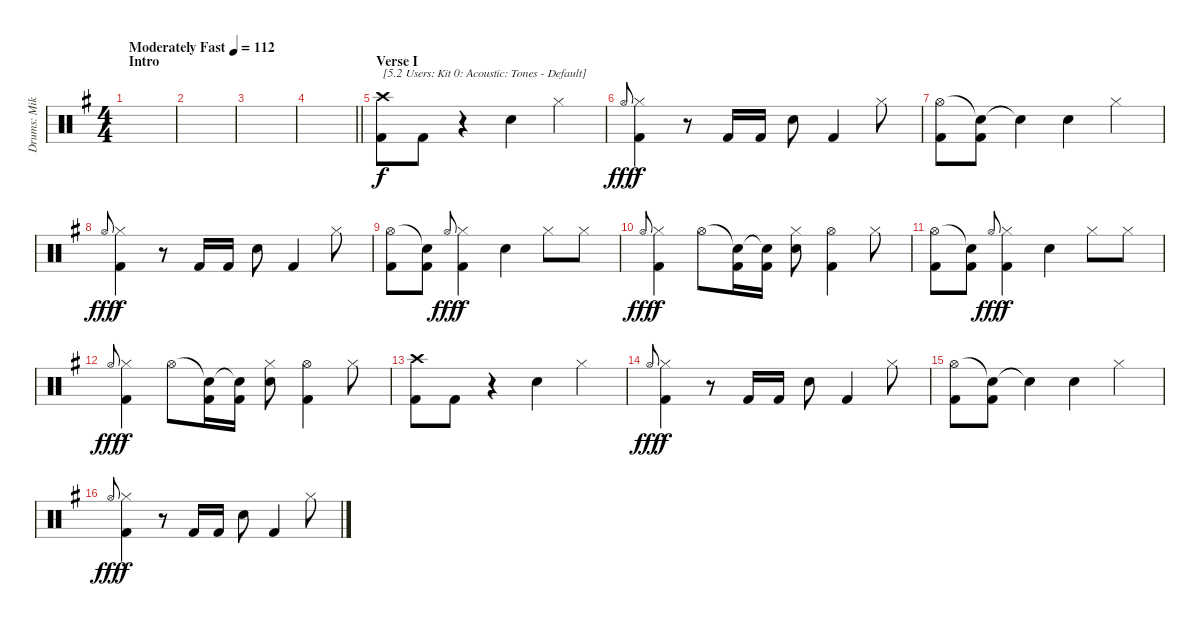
\track ("Drums: Mike" "Drums: Mik") {instrument percussion}
\staff {score}
\articulation defaults
\ts (4 4)
\section ("" "Intro")
\tempo (112 "Moderately Fast")
\clef neutral
\ks g
|
|
|
\barLineRight lightlight
|
\section ("" "Verse I")
("Crash high (hit)" "Kick (hit) 2").8{txt "[5.2 Users: Kit 0: Acoustic: Tones - Default]"} "Kick (hit) 2".8 r.4 "Electric Snare (hit)".4 "Hi-Hat (closed)".4 |
"Hi-Hat (open)".8{gr onbeat dy fff} ("Hi-Hat (closed)" "Kick (hit) 2").4{dy f} r.8 "Kick (hit) 2".16 "Kick (hit) 2".16 "Electric Snare (hit)".8 "Kick (hit) 2".4 "Hi-Hat (closed)".8 |
("Hi-Hat (open)" "Kick (hit) 2").8 ("Snare (hit)"{t} "Kick (hit) 2").8 "Snare (hit)"{t}.4 "Electric Snare (hit)".4 "Hi-Hat (closed)".4 |
"Hi-Hat (open)".8{gr onbeat dy fff} ("Hi-Hat (closed)" "Kick (hit) 2").4{dy f} r.8 "Kick (hit) 2".16 "Kick (hit) 2".16 "Electric Snare (hit)".8 "Kick (hit) 2".4 "Hi-Hat (closed)".8 |
("Hi-Hat (open)" "Kick (hit) 2").8 ("Snare (hit)"{t} "Kick (hit) 2").8 "Hi-Hat (open)".8{gr onbeat dy fff} ("Hi-Hat (closed)" "Kick (hit) 2").4{dy f} "Electric Snare (hit)".4 "Hi-Hat (closed)".8 "Hi-Hat (closed)".8 |
"Hi-Hat (open)".8{gr onbeat dy fff} ("Hi-Hat (closed)" "Kick (hit) 2").4{dy f} "Hi-Hat (open)".8 ("Snare (hit)"{t} "Kick (hit) 2").16 ("Snare (hit)"{t} "Kick (hit) 2").16 ("Hi-Hat (closed)" "Electric Snare (hit)").8 ("Hi-Hat (open)" "Kick (hit) 2").4 "Hi-Hat (closed)".8 |
("Hi-Hat (open)" "Kick (hit) 2").8 ("Snare (hit)"{t} "Kick (hit) 2").8 "Hi-Hat (open)".8{gr onbeat dy fff} ("Hi-Hat (closed)" "Kick (hit) 2").4{dy f} "Electric Snare (hit)".4 "Hi-Hat (closed)".8 "Hi-Hat (closed)".8 |
"Hi-Hat (open)".8{gr onbeat dy fff} ("Hi-Hat (closed)" "Kick (hit) 2").4{dy f} "Hi-Hat (open)".8 ("Snare (hit)"{t} "Kick (hit) 2").16 ("Snare (hit)"{t} "Kick (hit) 2").16 ("Hi-Hat (closed)" "Electric Snare (hit)").8 ("Hi-Hat (open)" "Kick (hit) 2").4 "Hi-Hat (closed)".8 |
("Crash high (hit)" "Kick (hit) 2").8 "Kick (hit) 2".8 r.4 "Electric Snare (hit)".4 "Hi-Hat (closed)".4 |
"Hi-Hat (open)".8{gr onbeat dy fff} ("Hi-Hat (closed)" "Kick (hit) 2").4{dy f} r.8 "Kick (hit) 2".16 "Kick (hit) 2".16 "Electric Snare (hit)".8 "Kick (hit) 2".4 "Hi-Hat (closed)".8 |
("Hi-Hat (open)" "Kick (hit) 2").8 ("Snare (hit)"{t} "Kick (hit) 2").8 "Snare (hit)"{t}.4 "Electric Snare (hit)".4 "Hi-Hat (closed)".4 |
"Hi-Hat (open)".8{gr onbeat dy fff} ("Hi-Hat (closed)" "Kick (hit) 2").4{dy f} r.8 "Kick (hit) 2".16 "Kick (hit) 2".16 "Electric Snare (hit)".8 "Kick (hit) 2".4 "Hi-Hat (closed)".8
